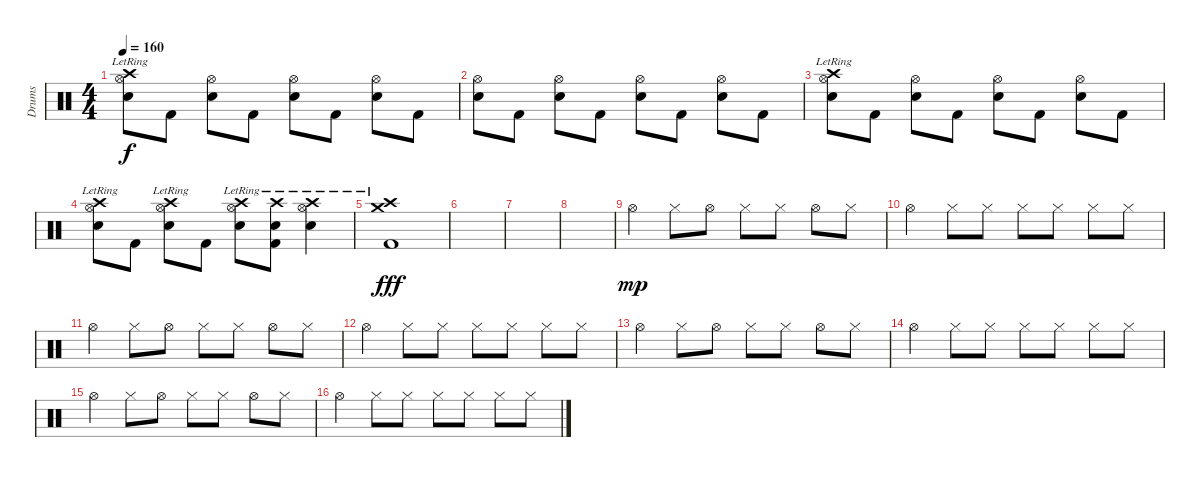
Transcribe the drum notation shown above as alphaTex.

\track ("Drums" "Drums") {instrument percussion}
\staff {score}
\articulation defaults
\ts (4 4)
\tempo 160
\clef neutral
\ks c
("Crash high (hit)"{lr} "Hi-Hat (open)" "Electric Snare (hit)").8{dy f} "Kick (hit) 2".8 ("Hi-Hat (open)" "Electric Snare (hit)").8 "Kick (hit) 2".8 ("Hi-Hat (open)" "Electric Snare (hit)").8 "Kick (hit) 2".8 ("Hi-Hat (open)" "Electric Snare (hit)").8 "Kick (hit) 2".8 |
("Hi-Hat (open)" "Electric Snare (hit)").8 "Kick (hit) 2".8 ("Hi-Hat (open)" "Electric Snare (hit)").8 "Kick (hit) 2".8 ("Hi-Hat (open)" "Electric Snare (hit)").8 "Kick (hit) 2".8 ("Hi-Hat (open)" "Electric Snare (hit)").8 "Kick (hit) 2".8 |
("Crash high (hit)"{lr} "Hi-Hat (open)" "Electric Snare (hit)").8 "Kick (hit) 2".8 ("Hi-Hat (open)" "Electric Snare (hit)").8 "Kick (hit) 2".8 ("Hi-Hat (open)" "Electric Snare (hit)").8 "Kick (hit) 2".8 ("Hi-Hat (open)" "Electric Snare (hit)").8 "Kick (hit) 2".8 |
("Crash high (hit)"{lr} "Hi-Hat (open)" "Electric Snare (hit)").8 "Kick (hit) 2".8 ("Crash high (hit)"{lr} "Hi-Hat (open)" "Electric Snare (hit)").8 "Kick (hit) 2".8 ("Crash high (hit)"{lr} "Hi-Hat (open)" "Electric Snare (hit)").8 ("Crash high (hit)"{lr} "Electric Snare (hit)" "Kick (hit) 2").8 ("Crash high (hit)"{lr} "Hi-Hat (open)" "Electric Snare (hit)").4 |
("Crash high (hit)"{lr} "Crash medium (hit)"{lr} "Kick (hit) 2").1{dy fff} |
|
|
|
"Hi-Hat (open)".4{dy mp} "Hi-Hat (closed)".8 "Hi-Hat (open)".8 "Hi-Hat (closed)".8 "Hi-Hat (closed)".8 "Hi-Hat (open)".8 "Hi-Hat (closed)".8 |
"Hi-Hat (open)".4 "Hi-Hat (closed)".8 "Hi-Hat (closed)".8 "Hi-Hat (closed)".8 "Hi-Hat (closed)".8 "Hi-Hat (closed)".8 "Hi-Hat (closed)".8 |
"Hi-Hat (open)".4 "Hi-Hat (closed)".8 "Hi-Hat (open)".8 "Hi-Hat (closed)".8 "Hi-Hat (closed)".8 "Hi-Hat (open)".8 "Hi-Hat (closed)".8 |
"Hi-Hat (open)".4 "Hi-Hat (closed)".8 "Hi-Hat (closed)".8 "Hi-Hat (closed)".8 "Hi-Hat (closed)".8 "Hi-Hat (closed)".8 "Hi-Hat (closed)".8 |
"Hi-Hat (open)".4 "Hi-Hat (closed)".8 "Hi-Hat (open)".8 "Hi-Hat (closed)".8 "Hi-Hat (closed)".8 "Hi-Hat (open)".8 "Hi-Hat (closed)".8 |
"Hi-Hat (open)".4 "Hi-Hat (closed)".8 "Hi-Hat (closed)".8 "Hi-Hat (closed)".8 "Hi-Hat (closed)".8 "Hi-Hat (closed)".8 "Hi-Hat (closed)".8 |
"Hi-Hat (open)".4 "Hi-Hat (closed)".8 "Hi-Hat (open)".8 "Hi-Hat (closed)".8 "Hi-Hat (closed)".8 "Hi-Hat (open)".8 "Hi-Hat (closed)".8 |
"Hi-Hat (open)".4 "Hi-Hat (closed)".8 "Hi-Hat (closed)".8 "Hi-Hat (closed)".8 "Hi-Hat (closed)".8 "Hi-Hat (closed)".8 "Hi-Hat (closed)".8
